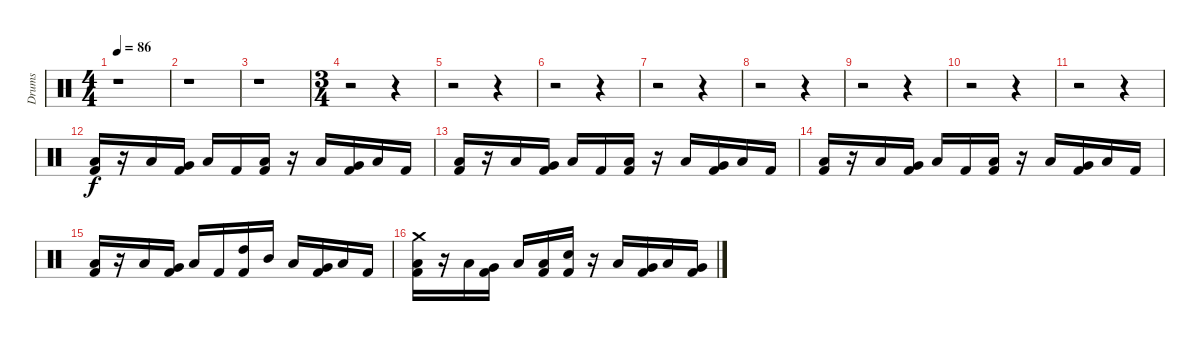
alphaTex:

\track ("Drums" "Drums") {instrument percussion}
\staff {score}
\articulation defaults
\ts (4 4)
\tempo 86
\clef neutral
\ks c
r.1{dy f} |
r.1 |
r.1 |
\ts (3 4)
r.2 r.4 |
r.2 r.4 |
r.2 r.4 |
r.2 r.4 |
r.2 r.4 |
r.2 r.4 |
r.2 r.4 |
r.2 r.4 |
("Low Floor Tom (hit)" "Kick (hit) 2").16 r.16 "Low Floor Tom (hit)".16 ("Very Low Tom (hit)" "Kick (hit) 2").16 "Low Floor Tom (hit)".16 "Kick (hit) 2".16 ("Low Floor Tom (hit)" "Kick (hit) 2").16 r.16 "Low Floor Tom (hit)".16 ("Very Low Tom (hit)" "Kick (hit) 2").16 "Low Floor Tom (hit)".16 "Kick (hit) 2".16 |
("Low Floor Tom (hit)" "Kick (hit) 2").16 r.16 "Low Floor Tom (hit)".16 ("Very Low Tom (hit)" "Kick (hit) 2").16 "Low Floor Tom (hit)".16 "Kick (hit) 2".16 ("Low Floor Tom (hit)" "Kick (hit) 2").16 r.16 "Low Floor Tom (hit)".16 ("Very Low Tom (hit)" "Kick (hit) 2").16 "Low Floor Tom (hit)".16 "Kick (hit) 2".16 |
("Low Floor Tom (hit)" "Kick (hit) 2").16 r.16 "Low Floor Tom (hit)".16 ("Very Low Tom (hit)" "Kick (hit) 2").16 "Low Floor Tom (hit)".16 "Kick (hit) 2".16 ("Low Floor Tom (hit)" "Kick (hit) 2").16 r.16 "Low Floor Tom (hit)".16 ("Very Low Tom (hit)" "Kick (hit) 2").16 "Low Floor Tom (hit)".16 "Kick (hit) 2".16 |
("Low Floor Tom (hit)" "Kick (hit) 2").16 r.16 "Low Floor Tom (hit)".16 ("Very Low Tom (hit)" "Kick (hit) 2").16 "Low Floor Tom (hit)".16 "Kick (hit) 2".16 ("High Tom (hit)" "Kick (hit) 2").16 "Mid Tom (hit)".16 "Low Tom (hit)".16 ("Very Low Tom (hit)" "Kick (hit) 2").16 "Low Floor Tom (hit)".16 "Kick (hit) 2".16 |
("Crash medium (hit)" "Low Floor Tom (hit)" "Kick (hit) 2").16 r.16 "Low Floor Tom (hit)".16 ("Very Low Tom (hit)" "Kick (hit) 2").16 "Low Floor Tom (hit)".16 ("Low Tom (hit)" "Kick (hit) 2").16 ("Electric Snare (hit)" "Kick (hit) 2").16 r.16 "Low Floor Tom (hit)".16 ("Very Low Tom (hit)" "Kick (hit) 2").16 "Low Floor Tom (hit)".16 ("Very Low Tom (hit)" "Kick (hit) 2").16
